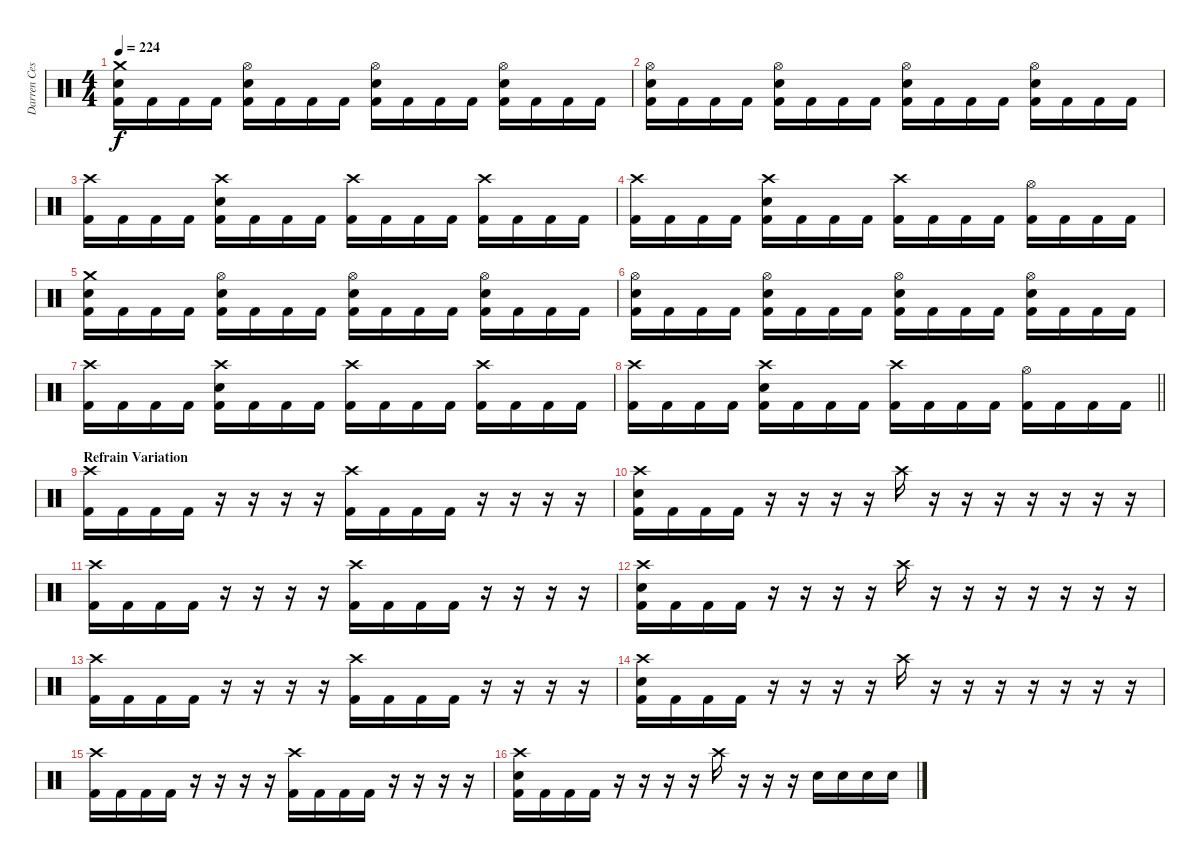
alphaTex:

\track ("Darren Cesca" "Darren Ces") {instrument percussion}
\staff {score}
\articulation defaults
\ts (4 4)
\tempo 224
\clef neutral
\ks c
("Crash medium (hit)" "Electric Snare (hit)" "Kick (hit) 2").16{dy f} "Kick (hit) 2".16 "Kick (hit) 2".16 "Kick (hit) 2".16 ("Hi-Hat (open)" "Electric Snare (hit)" "Kick (hit) 2").16 "Kick (hit) 2".16 "Kick (hit) 2".16 "Kick (hit) 2".16 ("Hi-Hat (open)" "Electric Snare (hit)" "Kick (hit) 2").16 "Kick (hit) 2".16 "Kick (hit) 2".16 "Kick (hit) 2".16 ("Hi-Hat (open)" "Electric Snare (hit)" "Kick (hit) 2").16 "Kick (hit) 2".16 "Kick (hit) 2".16 "Kick (hit) 2".16 |
("Hi-Hat (open)" "Electric Snare (hit)" "Kick (hit) 2").16 "Kick (hit) 2".16 "Kick (hit) 2".16 "Kick (hit) 2".16 ("Hi-Hat (open)" "Electric Snare (hit)" "Kick (hit) 2").16 "Kick (hit) 2".16 "Kick (hit) 2".16 "Kick (hit) 2".16 ("Hi-Hat (open)" "Electric Snare (hit)" "Kick (hit) 2").16 "Kick (hit) 2".16 "Kick (hit) 2".16 "Kick (hit) 2".16 ("Hi-Hat (open)" "Electric Snare (hit)" "Kick (hit) 2").16 "Kick (hit) 2".16 "Kick (hit) 2".16 "Kick (hit) 2".16 |
("Crash high (hit)" "Kick (hit) 2").16 "Kick (hit) 2".16 "Kick (hit) 2".16 "Kick (hit) 2".16 ("Crash high (hit)" "Electric Snare (hit)" "Kick (hit) 2").16 "Kick (hit) 2".16 "Kick (hit) 2".16 "Kick (hit) 2".16 ("Crash high (hit)" "Kick (hit) 2").16 "Kick (hit) 2".16 "Kick (hit) 2".16 "Kick (hit) 2".16 ("Crash high (hit)" "Kick (hit) 2").16 "Kick (hit) 2".16 "Kick (hit) 2".16 "Kick (hit) 2".16 |
("Crash high (hit)" "Kick (hit) 2").16 "Kick (hit) 2".16 "Kick (hit) 2".16 "Kick (hit) 2".16 ("Crash high (hit)" "Electric Snare (hit)" "Kick (hit) 2").16 "Kick (hit) 2".16 "Kick (hit) 2".16 "Kick (hit) 2".16 ("Crash high (hit)" "Kick (hit) 2").16 "Kick (hit) 2".16 "Kick (hit) 2".16 "Kick (hit) 2".16 ("Hi-Hat (open)" "Kick (hit) 2").16 "Kick (hit) 2".16 "Kick (hit) 2".16 "Kick (hit) 2".16 |
("Crash medium (hit)" "Electric Snare (hit)" "Kick (hit) 2").16 "Kick (hit) 2".16 "Kick (hit) 2".16 "Kick (hit) 2".16 ("Hi-Hat (open)" "Electric Snare (hit)" "Kick (hit) 2").16 "Kick (hit) 2".16 "Kick (hit) 2".16 "Kick (hit) 2".16 ("Hi-Hat (open)" "Electric Snare (hit)" "Kick (hit) 2").16 "Kick (hit) 2".16 "Kick (hit) 2".16 "Kick (hit) 2".16 ("Hi-Hat (open)" "Electric Snare (hit)" "Kick (hit) 2").16 "Kick (hit) 2".16 "Kick (hit) 2".16 "Kick (hit) 2".16 |
("Hi-Hat (open)" "Electric Snare (hit)" "Kick (hit) 2").16 "Kick (hit) 2".16 "Kick (hit) 2".16 "Kick (hit) 2".16 ("Hi-Hat (open)" "Electric Snare (hit)" "Kick (hit) 2").16 "Kick (hit) 2".16 "Kick (hit) 2".16 "Kick (hit) 2".16 ("Hi-Hat (open)" "Electric Snare (hit)" "Kick (hit) 2").16 "Kick (hit) 2".16 "Kick (hit) 2".16 "Kick (hit) 2".16 ("Hi-Hat (open)" "Electric Snare (hit)" "Kick (hit) 2").16 "Kick (hit) 2".16 "Kick (hit) 2".16 "Kick (hit) 2".16 |
("Crash high (hit)" "Kick (hit) 2").16 "Kick (hit) 2".16 "Kick (hit) 2".16 "Kick (hit) 2".16 ("Crash high (hit)" "Electric Snare (hit)" "Kick (hit) 2").16 "Kick (hit) 2".16 "Kick (hit) 2".16 "Kick (hit) 2".16 ("Crash high (hit)" "Kick (hit) 2").16 "Kick (hit) 2".16 "Kick (hit) 2".16 "Kick (hit) 2".16 ("Crash high (hit)" "Kick (hit) 2").16 "Kick (hit) 2".16 "Kick (hit) 2".16 "Kick (hit) 2".16 |
\barLineRight lightlight
("Crash high (hit)" "Kick (hit) 2").16 "Kick (hit) 2".16 "Kick (hit) 2".16 "Kick (hit) 2".16 ("Crash high (hit)" "Electric Snare (hit)" "Kick (hit) 2").16 "Kick (hit) 2".16 "Kick (hit) 2".16 "Kick (hit) 2".16 ("Crash high (hit)" "Kick (hit) 2").16 "Kick (hit) 2".16 "Kick (hit) 2".16 "Kick (hit) 2".16 ("Hi-Hat (open)" "Kick (hit) 2").16 "Kick (hit) 2".16 "Kick (hit) 2".16 "Kick (hit) 2".16 |
\section ("" "Refrain Variation")
("Crash high (hit)" "Kick (hit) 2").16 "Kick (hit) 2".16 "Kick (hit) 2".16 "Kick (hit) 2".16 r.16 r.16 r.16 r.16 ("Crash high (hit)" "Kick (hit) 2").16 "Kick (hit) 2".16 "Kick (hit) 2".16 "Kick (hit) 2".16 r.16 r.16 r.16 r.16 |
("Crash high (hit)" "Electric Snare (hit)" "Kick (hit) 2").16 "Kick (hit) 2".16 "Kick (hit) 2".16 "Kick (hit) 2".16 r.16 r.16 r.16 r.16 "Crash high (hit)".16 r.16 r.16 r.16 r.16 r.16 r.16 r.16 |
("Crash high (hit)" "Kick (hit) 2").16 "Kick (hit) 2".16 "Kick (hit) 2".16 "Kick (hit) 2".16 r.16 r.16 r.16 r.16 ("Crash high (hit)" "Kick (hit) 2").16 "Kick (hit) 2".16 "Kick (hit) 2".16 "Kick (hit) 2".16 r.16 r.16 r.16 r.16 |
("Crash high (hit)" "Electric Snare (hit)" "Kick (hit) 2").16 "Kick (hit) 2".16 "Kick (hit) 2".16 "Kick (hit) 2".16 r.16 r.16 r.16 r.16 "Crash high (hit)".16 r.16 r.16 r.16 r.16 r.16 r.16 r.16 |
("Crash high (hit)" "Kick (hit) 2").16 "Kick (hit) 2".16 "Kick (hit) 2".16 "Kick (hit) 2".16 r.16 r.16 r.16 r.16 ("Crash high (hit)" "Kick (hit) 2").16 "Kick (hit) 2".16 "Kick (hit) 2".16 "Kick (hit) 2".16 r.16 r.16 r.16 r.16 |
("Crash high (hit)" "Electric Snare (hit)" "Kick (hit) 2").16 "Kick (hit) 2".16 "Kick (hit) 2".16 "Kick (hit) 2".16 r.16 r.16 r.16 r.16 "Crash high (hit)".16 r.16 r.16 r.16 r.16 r.16 r.16 r.16 |
("Crash high (hit)" "Kick (hit) 2").16 "Kick (hit) 2".16 "Kick (hit) 2".16 "Kick (hit) 2".16 r.16 r.16 r.16 r.16 ("Crash high (hit)" "Kick (hit) 2").16 "Kick (hit) 2".16 "Kick (hit) 2".16 "Kick (hit) 2".16 r.16 r.16 r.16 r.16 |
("Crash high (hit)" "Electric Snare (hit)" "Kick (hit) 2").16 "Kick (hit) 2".16 "Kick (hit) 2".16 "Kick (hit) 2".16 r.16 r.16 r.16 r.16 "Crash high (hit)".16 r.16 r.16 r.16 "Electric Snare (hit)".16 "Electric Snare (hit)".16 "Electric Snare (hit)".16 "Electric Snare (hit)".16
